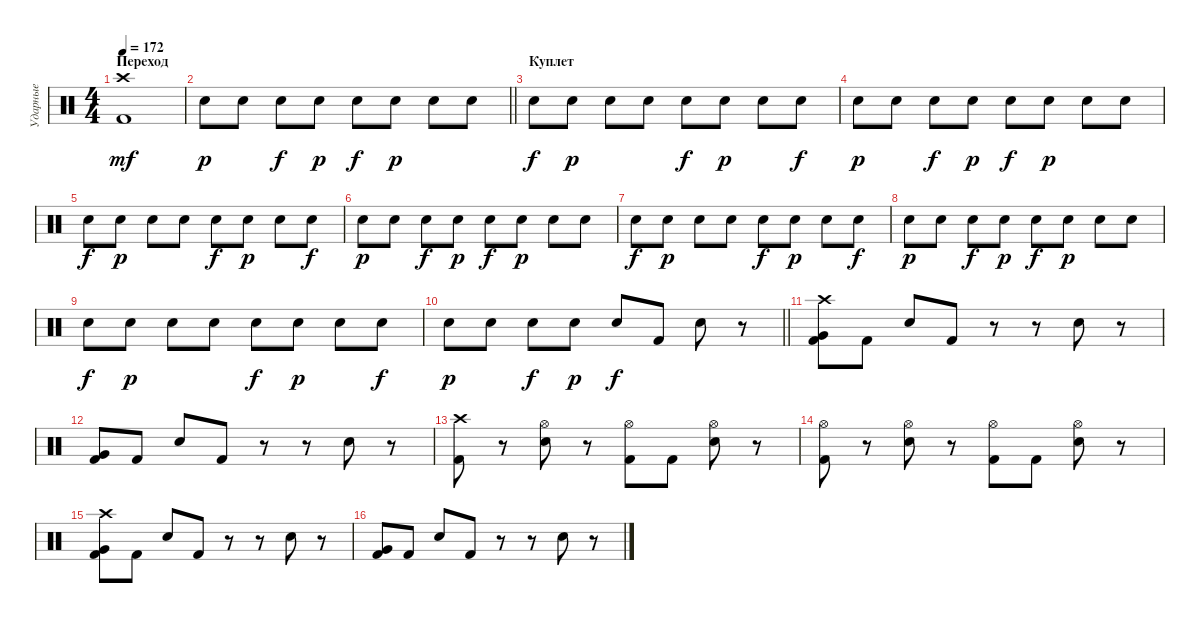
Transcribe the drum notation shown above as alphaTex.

\track ("Ударные" "Ударные") {instrument percussion}
\staff {score}
\articulation defaults
\ts (4 4)
\section ("" "Переход")
\tempo 172
\clef neutral
\ks c
("Crash high (hit)" "Kick (hit) 2").1{dy mf} |
\barLineRight lightlight "Snare (hit) 2".8{dy p} "Snare (hit) 2".8 "Snare (hit) 2".8{dy f} "Snare (hit) 2".8{dy p} "Snare (hit) 2".8{dy f} "Snare (hit) 2".8{dy p} "Snare (hit) 2".8 "Snare (hit) 2".8
|
\section ("" "Куплет")
"Snare (hit) 2".8{dy f} "Snare (hit) 2".8{dy p} "Snare (hit) 2".8 "Snare (hit) 2".8 "Snare (hit) 2".8{dy f} "Snare (hit) 2".8{dy p} "Snare (hit) 2".8 "Snare (hit) 2".8{dy f} |
"Snare (hit) 2".8{dy p} "Snare (hit) 2".8 "Snare (hit) 2".8{dy f} "Snare (hit) 2".8{dy p} "Snare (hit) 2".8{dy f} "Snare (hit) 2".8{dy p} "Snare (hit) 2".8 "Snare (hit) 2".8 |
"Snare (hit) 2".8{dy f} "Snare (hit) 2".8{dy p} "Snare (hit) 2".8 "Snare (hit) 2".8 "Snare (hit) 2".8{dy f} "Snare (hit) 2".8{dy p} "Snare (hit) 2".8 "Snare (hit) 2".8{dy f} |
"Snare (hit) 2".8{dy p} "Snare (hit) 2".8 "Snare (hit) 2".8{dy f} "Snare (hit) 2".8{dy p} "Snare (hit) 2".8{dy f} "Snare (hit) 2".8{dy p} "Snare (hit) 2".8 "Snare (hit) 2".8 |
"Snare (hit) 2".8{dy f} "Snare (hit) 2".8{dy p} "Snare (hit) 2".8 "Snare (hit) 2".8 "Snare (hit) 2".8{dy f} "Snare (hit) 2".8{dy p} "Snare (hit) 2".8 "Snare (hit) 2".8{dy f} |
"Snare (hit) 2".8{dy p} "Snare (hit) 2".8 "Snare (hit) 2".8{dy f} "Snare (hit) 2".8{dy p} "Snare (hit) 2".8{dy f} "Snare (hit) 2".8{dy p} "Snare (hit) 2".8 "Snare (hit) 2".8 |
"Snare (hit) 2".8{dy f} "Snare (hit) 2".8{dy p} "Snare (hit) 2".8 "Snare (hit) 2".8 "Snare (hit) 2".8{dy f} "Snare (hit) 2".8{dy p} "Snare (hit) 2".8 "Snare (hit) 2".8{dy f} |
\barLineRight lightlight "Snare (hit) 2".8{dy p} "Snare (hit) 2".8 "Snare (hit) 2".8{dy f} "Snare (hit) 2".8{dy p} "Snare (hit) 2".8{dy f} "Kick (hit) 2".8 "Snare (hit) 2".8
r.8 |
\section ("" "")
("Crash high (hit)" "Very Low Tom (hit)" "Kick (hit) 2").8 "Kick (hit) 2".8 "Snare (hit) 2".8 "Kick (hit) 2".8 r.8 r.8 "Snare (hit) 2".8 r.8 |
("Very Low Tom (hit)" "Kick (hit) 2").8 "Kick (hit) 2".8 "Snare (hit) 2".8 "Kick (hit) 2".8 r.8 r.8 "Snare (hit) 2".8 r.8 |
("Crash high (hit)" "Kick (hit) 2").8 r.8 ("Hi-Hat (open)" "Snare (hit) 2").8 r.8 ("Hi-Hat (open)" "Kick (hit) 2").8 "Kick (hit) 2".8 ("Hi-Hat (open)" "Snare (hit) 2").8 r.8 |
("Hi-Hat (open)" "Kick (hit) 2").8 r.8 ("Hi-Hat (open)" "Snare (hit) 2").8 r.8 ("Hi-Hat (open)" "Kick (hit) 2").8 "Kick (hit) 2".8 ("Hi-Hat (open)" "Snare (hit) 2").8 r.8 |
("Crash high (hit)" "Very Low Tom (hit)" "Kick (hit) 2").8 "Kick (hit) 2".8 "Snare (hit) 2".8 "Kick (hit) 2".8 r.8 r.8 "Snare (hit) 2".8 r.8 |
("Very Low Tom (hit)" "Kick (hit) 2").8 "Kick (hit) 2".8 "Snare (hit) 2".8 "Kick (hit) 2".8 r.8 r.8 "Snare (hit) 2".8 r.8
